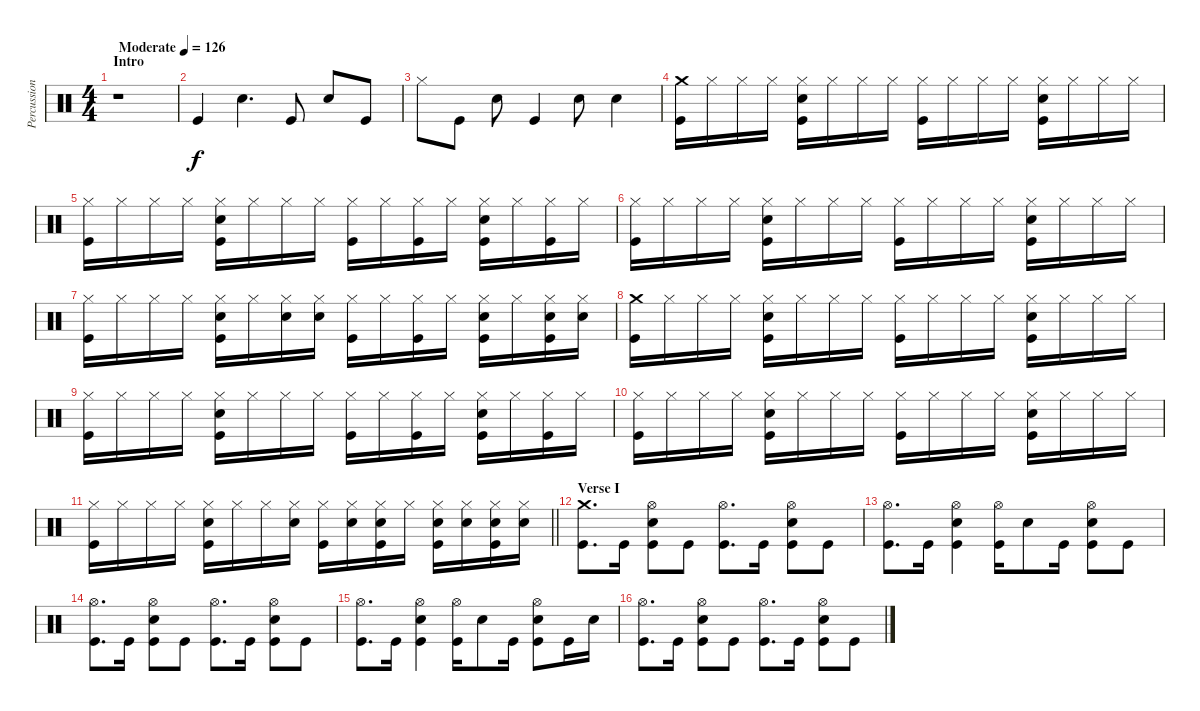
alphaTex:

\track ("Percussion" "Percussion") {instrument percussion}
\staff {score}
\articulation defaults
\ts (4 4)
\section ("" "Intro")
\tempo (126 "Moderate")
\clef neutral
\ks c
r.1{dy f} |
"Kick (hit)".4 "Electric Snare (hit)".4{d} "Kick (hit)".8 "Electric Snare (hit)".8 "Kick (hit)".8 |
"Hi-Hat (closed)".8 "Kick (hit)".8 "Electric Snare (hit)".8 "Kick (hit)".4 "Electric Snare (hit)".8 "Electric Snare (hit)".4 |
("Crash medium (hit)" "Kick (hit)").16 "Hi-Hat (closed)".16 "Hi-Hat (closed)".16 "Hi-Hat (closed)".16 ("Hi-Hat (closed)" "Electric Snare (hit)" "Kick (hit)").16 "Hi-Hat (closed)".16 "Hi-Hat (closed)".16 "Hi-Hat (closed)".16 ("Hi-Hat (closed)" "Kick (hit)").16 "Hi-Hat (closed)".16 "Hi-Hat (closed)".16 "Hi-Hat (closed)".16 ("Hi-Hat (closed)" "Electric Snare (hit)" "Kick (hit)").16 "Hi-Hat (closed)".16 "Hi-Hat (closed)".16 "Hi-Hat (closed)".16 |
("Hi-Hat (closed)" "Kick (hit)").16 "Hi-Hat (closed)".16 "Hi-Hat (closed)".16 "Hi-Hat (closed)".16 ("Hi-Hat (closed)" "Electric Snare (hit)" "Kick (hit)").16 "Hi-Hat (closed)".16 "Hi-Hat (closed)".16 "Hi-Hat (closed)".16 ("Hi-Hat (closed)" "Kick (hit)").16 "Hi-Hat (closed)".16 ("Hi-Hat (closed)" "Kick (hit)").16 "Hi-Hat (closed)".16 ("Hi-Hat (closed)" "Electric Snare (hit)" "Kick (hit)").16 "Hi-Hat (closed)".16 ("Hi-Hat (closed)" "Kick (hit)").16 "Hi-Hat (closed)".16 |
("Hi-Hat (closed)" "Kick (hit)").16 "Hi-Hat (closed)".16 "Hi-Hat (closed)".16 "Hi-Hat (closed)".16 ("Hi-Hat (closed)" "Electric Snare (hit)" "Kick (hit)").16 "Hi-Hat (closed)".16 "Hi-Hat (closed)".16 "Hi-Hat (closed)".16 ("Hi-Hat (closed)" "Kick (hit)").16 "Hi-Hat (closed)".16 "Hi-Hat (closed)".16 "Hi-Hat (closed)".16 ("Hi-Hat (closed)" "Electric Snare (hit)" "Kick (hit)").16 "Hi-Hat (closed)".16 "Hi-Hat (closed)".16 "Hi-Hat (closed)".16 |
("Hi-Hat (closed)" "Kick (hit)").16 "Hi-Hat (closed)".16 "Hi-Hat (closed)".16 "Hi-Hat (closed)".16 ("Hi-Hat (closed)" "Electric Snare (hit)" "Kick (hit)").16 "Hi-Hat (closed)".16 ("Hi-Hat (closed)" "Electric Snare (hit)").16 ("Hi-Hat (closed)" "Electric Snare (hit)").16 ("Hi-Hat (closed)" "Kick (hit)").16 "Hi-Hat (closed)".16 ("Hi-Hat (closed)" "Kick (hit)").16 "Hi-Hat (closed)".16 ("Hi-Hat (closed)" "Electric Snare (hit)" "Kick (hit)").16 "Hi-Hat (closed)".16 ("Hi-Hat (closed)" "Electric Snare (hit)" "Kick (hit)").16 ("Hi-Hat (closed)" "Electric Snare (hit)").16 |
("Crash medium (hit)" "Kick (hit)").16 "Hi-Hat (closed)".16 "Hi-Hat (closed)".16 "Hi-Hat (closed)".16 ("Hi-Hat (closed)" "Electric Snare (hit)" "Kick (hit)").16 "Hi-Hat (closed)".16 "Hi-Hat (closed)".16 "Hi-Hat (closed)".16 ("Hi-Hat (closed)" "Kick (hit)").16 "Hi-Hat (closed)".16 "Hi-Hat (closed)".16 "Hi-Hat (closed)".16 ("Hi-Hat (closed)" "Electric Snare (hit)" "Kick (hit)").16 "Hi-Hat (closed)".16 "Hi-Hat (closed)".16 "Hi-Hat (closed)".16 |
("Hi-Hat (closed)" "Kick (hit)").16 "Hi-Hat (closed)".16 "Hi-Hat (closed)".16 "Hi-Hat (closed)".16 ("Hi-Hat (closed)" "Electric Snare (hit)" "Kick (hit)").16 "Hi-Hat (closed)".16 "Hi-Hat (closed)".16 "Hi-Hat (closed)".16 ("Hi-Hat (closed)" "Kick (hit)").16 "Hi-Hat (closed)".16 ("Hi-Hat (closed)" "Kick (hit)").16 "Hi-Hat (closed)".16 ("Hi-Hat (closed)" "Electric Snare (hit)" "Kick (hit)").16 "Hi-Hat (closed)".16 ("Hi-Hat (closed)" "Kick (hit)").16 "Hi-Hat (closed)".16 |
("Hi-Hat (closed)" "Kick (hit)").16 "Hi-Hat (closed)".16 "Hi-Hat (closed)".16 "Hi-Hat (closed)".16 ("Hi-Hat (closed)" "Electric Snare (hit)" "Kick (hit)").16 "Hi-Hat (closed)".16 "Hi-Hat (closed)".16 "Hi-Hat (closed)".16 ("Hi-Hat (closed)" "Kick (hit)").16 "Hi-Hat (closed)".16 "Hi-Hat (closed)".16 "Hi-Hat (closed)".16 ("Hi-Hat (closed)" "Electric Snare (hit)" "Kick (hit)").16 "Hi-Hat (closed)".16 "Hi-Hat (closed)".16 "Hi-Hat (closed)".16 |
\barLineRight lightlight
("Hi-Hat (closed)" "Kick (hit)").16 "Hi-Hat (closed)".16 "Hi-Hat (closed)".16 "Hi-Hat (closed)".16 ("Hi-Hat (closed)" "Electric Snare (hit)" "Kick (hit)").16 "Hi-Hat (closed)".16 "Hi-Hat (closed)".16 ("Hi-Hat (closed)" "Electric Snare (hit)").16 ("Hi-Hat (closed)" "Kick (hit)").16 ("Hi-Hat (closed)" "Electric Snare (hit)").16 ("Hi-Hat (closed)" "Electric Snare (hit)" "Kick (hit)").16 "Hi-Hat (closed)".16 ("Hi-Hat (closed)" "Electric Snare (hit)" "Kick (hit)").16 ("Hi-Hat (closed)" "Electric Snare (hit)").16 ("Hi-Hat (closed)" "Electric Snare (hit)" "Kick (hit)").16 ("Hi-Hat (closed)" "Electric Snare (hit)").16 |
\section ("" "Verse I")
("Crash medium (hit)" "Kick (hit)").8{d} "Kick (hit)".16 ("Hi-Hat (open)" "Electric Snare (hit)" "Kick (hit)").8 "Kick (hit)".8 ("Hi-Hat (open)" "Kick (hit)").8{d} "Kick (hit)".16 ("Hi-Hat (open)" "Electric Snare (hit)" "Kick (hit)").8 "Kick (hit)".8 |
("Hi-Hat (open)" "Kick (hit)").8{d} "Kick (hit)".16 ("Hi-Hat (open)" "Electric Snare (hit)" "Kick (hit)").4 ("Hi-Hat (open)" "Kick (hit)").16 "Electric Snare (hit)".8 "Kick (hit)".16 ("Hi-Hat (open)" "Electric Snare (hit)" "Kick (hit)").8 "Kick (hit)".8 |
("Hi-Hat (open)" "Kick (hit)").8{d} "Kick (hit)".16 ("Hi-Hat (open)" "Electric Snare (hit)" "Kick (hit)").8 "Kick (hit)".8 ("Hi-Hat (open)" "Kick (hit)").8{d} "Kick (hit)".16 ("Hi-Hat (open)" "Electric Snare (hit)" "Kick (hit)").8 "Kick (hit)".8 |
("Hi-Hat (open)" "Kick (hit)").8{d} "Kick (hit)".16 ("Hi-Hat (open)" "Electric Snare (hit)" "Kick (hit)").4 ("Hi-Hat (open)" "Kick (hit)").16 "Electric Snare (hit)".8 "Kick (hit)".16 ("Hi-Hat (open)" "Electric Snare (hit)" "Kick (hit)").8 "Kick (hit)".16 "Electric Snare (hit)".16 |
("Hi-Hat (open)" "Kick (hit)").8{d} "Kick (hit)".16 ("Hi-Hat (open)" "Electric Snare (hit)" "Kick (hit)").8 "Kick (hit)".8 ("Hi-Hat (open)" "Kick (hit)").8{d} "Kick (hit)".16 ("Hi-Hat (open)" "Electric Snare (hit)" "Kick (hit)").8 "Kick (hit)".8
